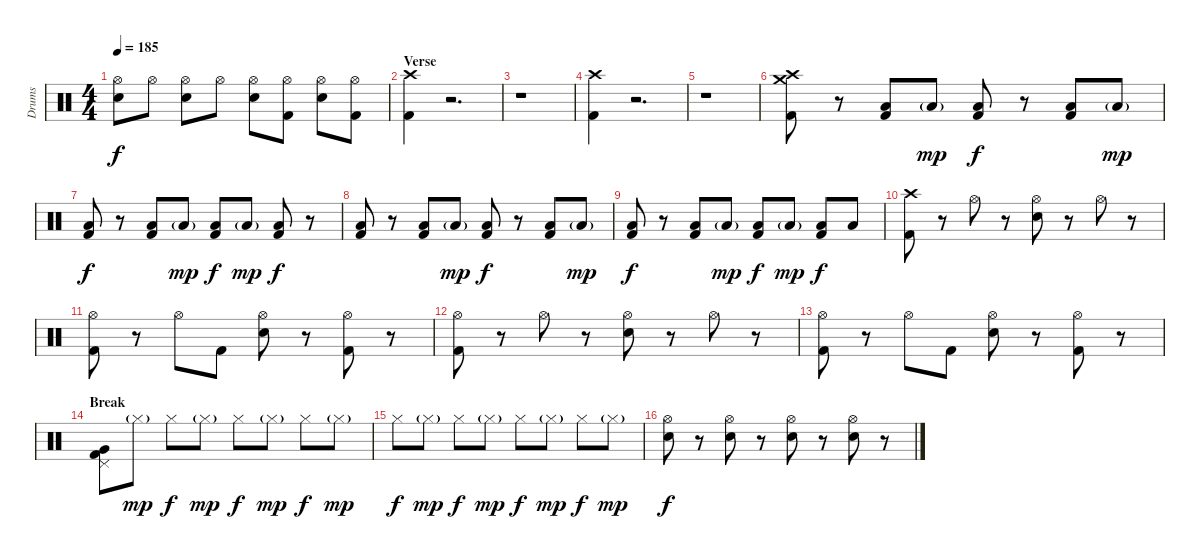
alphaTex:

\track ("Drums" "Drums") {instrument percussion}
\staff {score}
\articulation defaults
\ts (4 4)
\tempo 185
\clef neutral
\ks c
("Hi-Hat (open)" "Electric Snare (hit)").8{dy f} "Hi-Hat (open)".8 ("Hi-Hat (open)" "Electric Snare (hit)").8 "Hi-Hat (open)".8 ("Hi-Hat (open)" "Electric Snare (hit)").8 ("Hi-Hat (open)" "Kick (hit) 2").8 ("Hi-Hat (open)" "Electric Snare (hit)").8 ("Hi-Hat (open)" "Kick (hit) 2").8 |
\section ("" "Verse")
("Crash high (hit)" "Kick (hit) 2").4 r.2{d volume 0} |
r.1 |
("Crash high (hit)" "Kick (hit) 2").4{volume 13} r.2{d volume 0} |
r.1 |
("Crash medium (hit)" "Crash high (hit)" "Kick (hit) 2").8{volume 13} r.8 ("Low Tom (hit)" "Kick (hit) 2").8 "Low Tom (hit)"{g}.8{dy mp} ("Low Tom (hit)" "Kick (hit) 2").8{dy f} r.8 ("Low Tom (hit)" "Kick (hit) 2").8 "Low Tom (hit)"{g}.8{dy mp} |
("Low Tom (hit)" "Kick (hit) 2").8{dy f} r.8 ("Low Tom (hit)" "Kick (hit) 2").8 "Low Tom (hit)"{g}.8{dy mp} ("Low Tom (hit)" "Kick (hit) 2").8{dy f} "Low Tom (hit)"{g}.8{dy mp} ("Low Tom (hit)" "Kick (hit) 2").8{dy f} r.8 |
("Low Tom (hit)" "Kick (hit) 2").8 r.8 ("Low Tom (hit)" "Kick (hit) 2").8 "Low Tom (hit)"{g}.8{dy mp} ("Low Tom (hit)" "Kick (hit) 2").8{dy f} r.8 ("Low Tom (hit)" "Kick (hit) 2").8 "Low Tom (hit)"{g}.8{dy mp} |
("Low Tom (hit)" "Kick (hit) 2").8{dy f} r.8 ("Low Tom (hit)" "Kick (hit) 2").8 "Low Tom (hit)"{g}.8{dy mp} ("Low Tom (hit)" "Kick (hit) 2").8{dy f} "Low Tom (hit)"{g}.8{dy mp} ("Low Tom (hit)" "Kick (hit) 2").8{dy f} "Low Tom (hit)".8 |
("Crash high (hit)" "Kick (hit) 2").8 r.8 "Hi-Hat (open)".8 r.8 ("Hi-Hat (open)" "Electric Snare (hit)").8 r.8 "Hi-Hat (open)".8 r.8 |
("Hi-Hat (open)" "Kick (hit) 2").8 r.8 "Hi-Hat (open)".8 "Kick (hit) 2".8 ("Hi-Hat (open)" "Electric Snare (hit)").8 r.8 ("Hi-Hat (open)" "Kick (hit) 2").8 r.8 |
("Hi-Hat (open)" "Kick (hit) 2").8 r.8 "Hi-Hat (open)".8 r.8 ("Hi-Hat (open)" "Electric Snare (hit)").8 r.8 "Hi-Hat (open)".8 r.8 |
("Hi-Hat (open)" "Kick (hit) 2").8 r.8 "Hi-Hat (open)".8 "Kick (hit) 2".8 ("Hi-Hat (open)" "Electric Snare (hit)").8 r.8 ("Hi-Hat (open)" "Kick (hit) 2").8 r.8 |
\section ("" "Break")
("Pedal Hi-Hat (hit)" "Very Low Tom (hit)" "Kick (hit) 2").8 "Hi-Hat (closed)"{g}.8{dy mp} "Hi-Hat (closed)".8{dy f} "Hi-Hat (closed)"{g}.8{dy mp} "Hi-Hat (closed)".8{dy f} "Hi-Hat (closed)"{g}.8{dy mp} "Hi-Hat (closed)".8{dy f} "Hi-Hat (closed)"{g}.8{dy mp} |
"Hi-Hat (closed)".8{dy f} "Hi-Hat (closed)"{g}.8{dy mp} "Hi-Hat (closed)".8{dy f} "Hi-Hat (closed)"{g}.8{dy mp} "Hi-Hat (closed)".8{dy f} "Hi-Hat (closed)"{g}.8{dy mp} "Hi-Hat (closed)".8{dy f} "Hi-Hat (closed)"{g}.8{dy mp} |
("Hi-Hat (open)" "Electric Snare (hit)").8{dy f volume 15} r.8 ("Hi-Hat (open)" "Electric Snare (hit)").8 r.8 ("Hi-Hat (open)" "Electric Snare (hit)").8 r.8 ("Hi-Hat (open)" "Electric Snare (hit)").8 r.8
